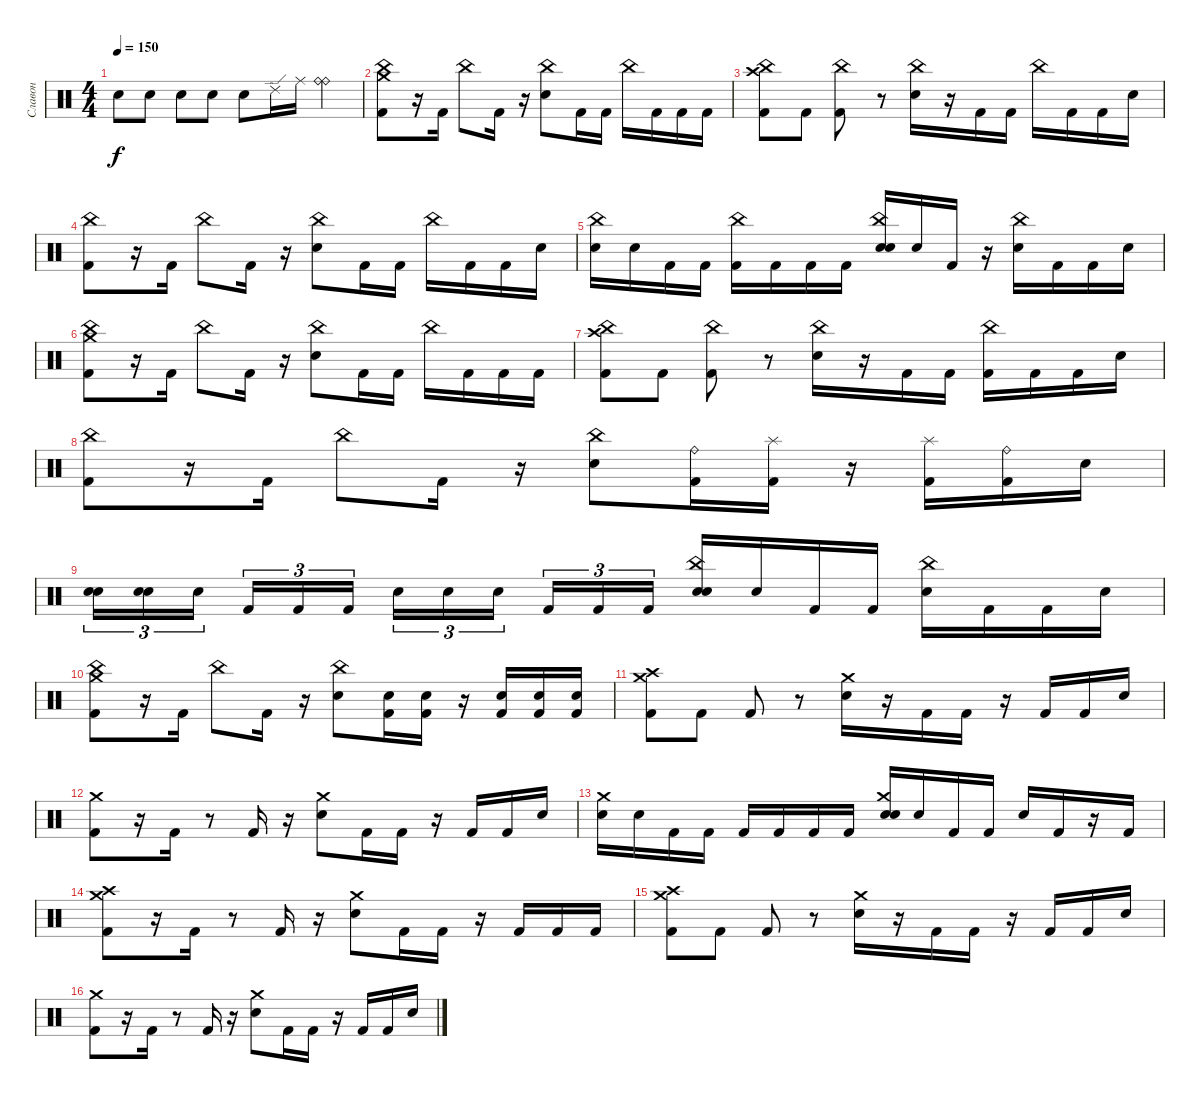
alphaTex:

\track ("Славон" "Славон") {instrument percussion}
\staff {score}
\articulation defaults
\ts (4 4)
\tempo 150
\clef neutral
\ks c "Snare (hit)".8{dy f} "Snare (hit)".8 "Snare (hit)".8 "Snare (hit)".8 "Snare (hit)".8 "Ride (edge) 2".16 "Ride (middle)".16
("Ride (bell)" "Ride (bell)").4 |
("Crash medium (hit)" "China (hit)" "Kick (hit) 2").8 r.16 "Kick (hit) 2".16 "China (hit)".8 "Kick (hit) 2".16 r.16 ("China (hit)" "Electric Snare (hit)").8 "Kick (hit) 2".16 "Kick (hit) 2".16 "China (hit)".16 "Kick (hit) 2".16 "Kick (hit) 2".16 "Kick (hit) 2".16 |
("China (hit)" "Crash high (hit)" "Kick (hit) 2").8 "Kick (hit) 2".8 ("China (hit)" "Kick (hit) 2").8 r.8 ("China (hit)" "Electric Snare (hit)").16 r.16 "Kick (hit) 2".16 "Kick (hit) 2".16 "China (hit)".16 "Kick (hit) 2".16 "Kick (hit) 2".16 "Snare (hit)".16 |
("China (hit)" "Kick (hit) 2").8 r.16 "Kick (hit) 2".16 "China (hit)".8 "Kick (hit) 2".16 r.16 ("China (hit)" "Electric Snare (hit)").8 "Kick (hit) 2".16 "Kick (hit) 2".16 "China (hit)".16 "Kick (hit) 2".16 "Kick (hit) 2".16 "Snare (hit)".16 |
("China (hit)" "Snare (hit)").16 "Snare (hit)".16 "Kick (hit) 2".16 "Kick (hit) 2".16 ("China (hit)" "Kick (hit) 2").16 "Kick (hit) 2".16 "Kick (hit) 2".16 "Kick (hit) 2".16 ("China (hit)" "Electric Snare (hit)" "Snare (hit)").16 "Snare (hit)".16 "Kick (hit) 2".16 r.16 ("China (hit)" "Snare (hit)").16 "Kick (hit) 2".16 "Kick (hit) 2".16 "Snare (hit)".16 |
("Crash medium (hit)" "China (hit)" "Kick (hit) 2").8 r.16 "Kick (hit) 2".16 "China (hit)".8 "Kick (hit) 2".16 r.16 ("China (hit)" "Electric Snare (hit)").8 "Kick (hit) 2".16 "Kick (hit) 2".16 "China (hit)".16 "Kick (hit) 2".16 "Kick (hit) 2".16 "Kick (hit) 2".16 |
("China (hit)" "Crash high (hit)" "Kick (hit) 2").8 "Kick (hit) 2".8 ("China (hit)" "Kick (hit) 2").8 r.8 ("China (hit)" "Electric Snare (hit)").16 r.16 "Kick (hit) 2".16 "Kick (hit) 2".16 ("China (hit)" "Kick (hit) 2").16 "Kick (hit) 2".16 "Kick (hit) 2".16 "Snare (hit)".16 |
("China (hit)" "Kick (hit) 2").8 r.16 "Kick (hit) 2".16 "China (hit)".8 "Kick (hit) 2".16 r.16 ("China (hit)" "Electric Snare (hit)").8 ("Ride (bell)" "Kick (hit) 2").16 ("Splash (hit)" "Kick (hit) 2").16 r.16 ("Splash (hit)" "Kick (hit) 2").16 ("Ride (bell)" "Kick (hit) 2").16 "Snare (hit)".16 |
("Electric Snare (hit)" "Snare (hit)").16{tu (3 2)} ("Electric Snare (hit)" "Snare (hit)").16{tu (3 2)} "Electric Snare (hit)".16{tu (3 2)} "Kick (hit) 2".16{tu (3 2)} "Kick (hit) 2".16{tu (3 2)} "Kick (hit) 2".16{tu (3 2)} "Electric Snare (hit)".16{tu (3 2)} "Electric Snare (hit)".16{tu (3 2)} "Electric Snare (hit)".16{tu (3 2)} "Kick (hit) 2".16{tu (3 2)} "Kick (hit) 2".16{tu (3 2)} "Kick (hit) 2".16{tu (3 2)} ("China (hit)" "Electric Snare (hit)" "Snare (hit)").16 "Snare (hit)".16 "Kick (hit) 2".16 "Kick (hit) 2".16 ("China (hit)" "Snare (hit)").16 "Kick (hit) 2".16 "Kick (hit) 2".16 "Snare (hit)".16 |
("Crash medium (hit)" "China (hit)" "Kick (hit) 2").8 r.16 "Kick (hit) 2".16 "China (hit)".8 "Kick (hit) 2".16 r.16 ("China (hit)" "Electric Snare (hit)").8 ("Electric Snare (hit)" "Kick (hit) 2").16 ("Electric Snare (hit)" "Kick (hit) 2").16 r.16 ("Electric Snare (hit)" "Kick (hit) 2").16 ("Electric Snare (hit)" "Kick (hit) 2").16 ("Electric Snare (hit)" "Kick (hit) 2").16 |
("Crash medium (hit)" "Crash high (hit)" "Kick (hit) 2").8 "Kick (hit) 2".8 "Kick (hit) 2".8 r.8 ("Crash medium (hit)" "Electric Snare (hit)").16 r.16 "Kick (hit) 2".16 "Kick (hit) 2".16 r.16 "Kick (hit) 2".16 "Kick (hit) 2".16 "Snare (hit)".16 |
("Crash medium (hit)" "Kick (hit) 2").8 r.16 "Kick (hit) 2".16 r.8 "Kick (hit) 2".16 r.16 ("Crash medium (hit)" "Electric Snare (hit)").8 "Kick (hit) 2".16 "Kick (hit) 2".16 r.16 "Kick (hit) 2".16 "Kick (hit) 2".16 "Snare (hit)".16 |
("Crash medium (hit)" "Snare (hit)").16 "Snare (hit)".16 "Kick (hit) 2".16 "Kick (hit) 2".16 "Kick (hit) 2".16 "Kick (hit) 2".16 "Kick (hit) 2".16 "Kick (hit) 2".16 ("Crash medium (hit)" "Electric Snare (hit)" "Snare (hit)").16 "Snare (hit)".16 "Kick (hit) 2".16 "Kick (hit) 2".16 "Snare (hit)".16 "Kick (hit) 2".16 r.16 "Kick (hit) 2".16 |
("Crash medium (hit)" "Crash high (hit)" "Kick (hit) 2").8 r.16 "Kick (hit) 2".16 r.8 "Kick (hit) 2".16 r.16 ("Crash medium (hit)" "Electric Snare (hit)").8 "Kick (hit) 2".16 "Kick (hit) 2".16 r.16 "Kick (hit) 2".16 "Kick (hit) 2".16 "Kick (hit) 2".16 |
("Crash medium (hit)" "Crash high (hit)" "Kick (hit) 2").8 "Kick (hit) 2".8 "Kick (hit) 2".8 r.8 ("Crash medium (hit)" "Electric Snare (hit)").16 r.16 "Kick (hit) 2".16 "Kick (hit) 2".16 r.16 "Kick (hit) 2".16 "Kick (hit) 2".16 "Snare (hit)".16 |
("Crash medium (hit)" "Kick (hit) 2").8 r.16 "Kick (hit) 2".16 r.8 "Kick (hit) 2".16 r.16 ("Crash medium (hit)" "Electric Snare (hit)").8 "Kick (hit) 2".16 "Kick (hit) 2".16 r.16 "Kick (hit) 2".16 "Kick (hit) 2".16 "Snare (hit)".16
